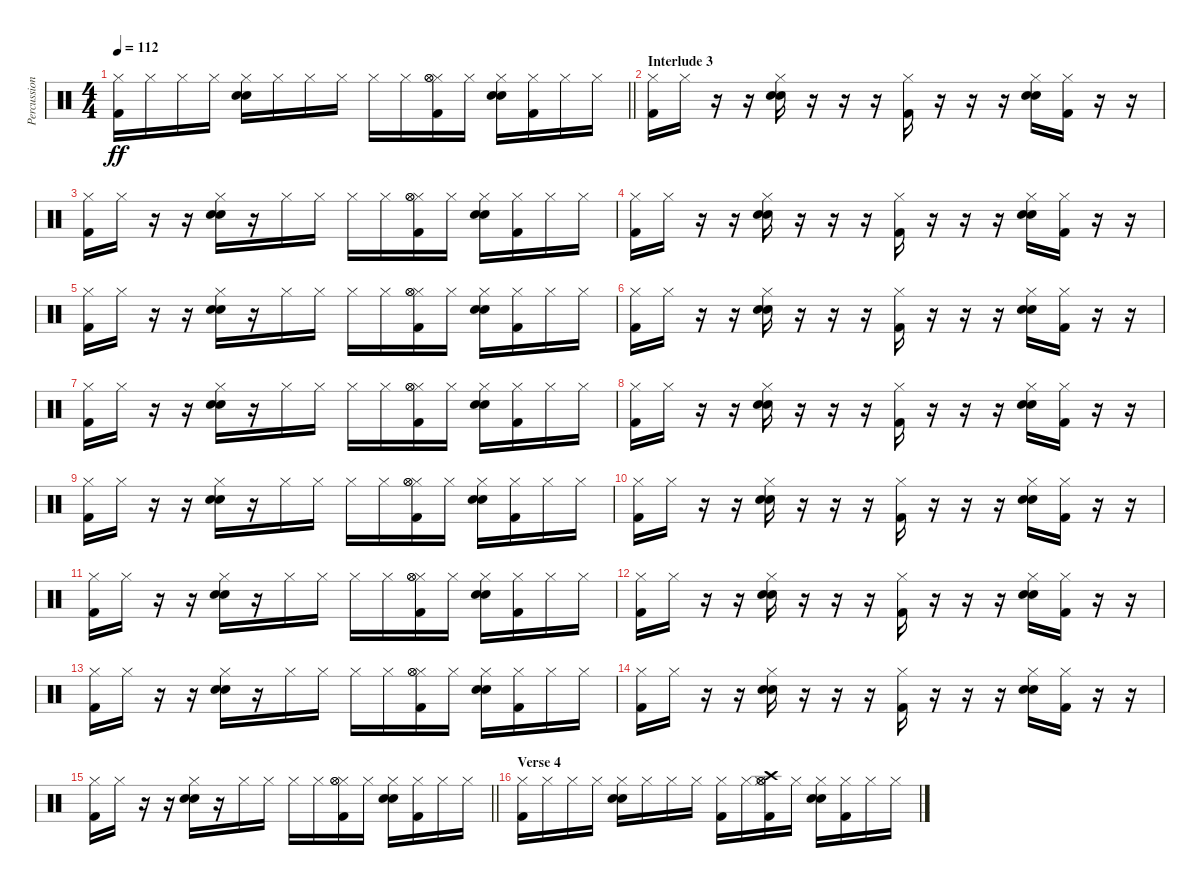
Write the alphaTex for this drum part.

\track ("Percussion" "Percussion") {instrument percussion}
\staff {score}
\articulation defaults
\ts (4 4)
\tempo 112
\clef neutral
\barLineRight lightlight
\ks c
("Kick (hit) 2" "Hi-Hat (closed)").16{dy ff} "Hi-Hat (closed)".16 "Hi-Hat (closed)".16 "Hi-Hat (closed)".16 ("Snare (hit) 2" "Hi-Hat (closed)" "Hand Clap (hit)").16 "Hi-Hat (closed)".16 "Hi-Hat (closed)".16 "Hi-Hat (closed)".16 "Hi-Hat (closed)".16 "Hi-Hat (closed)".16 ("Kick (hit) 2" "Hi-Hat (closed)" "Hi-Hat (open)" "Hi-Hat (open)").16 "Hi-Hat (closed)".16 ("Snare (hit) 2" "Hi-Hat (closed)" "Hand Clap (hit)").16 ("Kick (hit) 2" "Hi-Hat (closed)").16 "Hi-Hat (closed)".16 "Hi-Hat (closed)".16 |
\section ("" "Interlude 3")
("Kick (hit) 2" "Hi-Hat (closed)").16 "Hi-Hat (closed)".16 r.16 r.16 ("Snare (hit) 2" "Hi-Hat (closed)" "Hand Clap (hit)").16 r.16 r.16 r.16 ("Kick (hit) 2" "Hi-Hat (closed)").16 r.16 r.16 r.16 ("Snare (hit) 2" "Hi-Hat (closed)" "Hand Clap (hit)").16 ("Kick (hit) 2" "Hi-Hat (closed)").16 r.16 r.16 |
("Kick (hit) 2" "Hi-Hat (closed)").16 "Hi-Hat (closed)".16 r.16 r.16 ("Snare (hit) 2" "Hi-Hat (closed)" "Hand Clap (hit)").16 r.16 "Hi-Hat (closed)".16 "Hi-Hat (closed)".16 "Hi-Hat (closed)".16 "Hi-Hat (closed)".16 ("Kick (hit) 2" "Hi-Hat (closed)" "Hi-Hat (open)" "Hi-Hat (open)").16 "Hi-Hat (closed)".16 ("Snare (hit) 2" "Hi-Hat (closed)" "Hand Clap (hit)").16 ("Kick (hit) 2" "Hi-Hat (closed)").16 "Hi-Hat (closed)".16 "Hi-Hat (closed)".16 |
("Kick (hit) 2" "Hi-Hat (closed)").16 "Hi-Hat (closed)".16 r.16 r.16 ("Snare (hit) 2" "Hi-Hat (closed)" "Hand Clap (hit)").16 r.16 r.16 r.16 ("Kick (hit) 2" "Hi-Hat (closed)").16 r.16 r.16 r.16 ("Snare (hit) 2" "Hi-Hat (closed)" "Hand Clap (hit)").16 ("Kick (hit) 2" "Hi-Hat (closed)").16 r.16 r.16 |
("Kick (hit) 2" "Hi-Hat (closed)").16 "Hi-Hat (closed)".16 r.16 r.16 ("Snare (hit) 2" "Hi-Hat (closed)" "Hand Clap (hit)").16 r.16 "Hi-Hat (closed)".16 "Hi-Hat (closed)".16 "Hi-Hat (closed)".16 "Hi-Hat (closed)".16 ("Kick (hit) 2" "Hi-Hat (closed)" "Hi-Hat (open)" "Hi-Hat (open)").16 "Hi-Hat (closed)".16 ("Snare (hit) 2" "Hi-Hat (closed)" "Hand Clap (hit)").16 ("Kick (hit) 2" "Hi-Hat (closed)").16 "Hi-Hat (closed)".16 "Hi-Hat (closed)".16 |
("Kick (hit) 2" "Hi-Hat (closed)").16 "Hi-Hat (closed)".16 r.16 r.16 ("Snare (hit) 2" "Hi-Hat (closed)" "Hand Clap (hit)").16 r.16 r.16 r.16 ("Kick (hit) 2" "Hi-Hat (closed)").16 r.16 r.16 r.16 ("Snare (hit) 2" "Hi-Hat (closed)" "Hand Clap (hit)").16 ("Kick (hit) 2" "Hi-Hat (closed)").16 r.16 r.16 |
("Kick (hit) 2" "Hi-Hat (closed)").16 "Hi-Hat (closed)".16 r.16 r.16 ("Snare (hit) 2" "Hi-Hat (closed)" "Hand Clap (hit)").16 r.16 "Hi-Hat (closed)".16 "Hi-Hat (closed)".16 "Hi-Hat (closed)".16 "Hi-Hat (closed)".16 ("Kick (hit) 2" "Hi-Hat (closed)" "Hi-Hat (open)" "Hi-Hat (open)").16 "Hi-Hat (closed)".16 ("Snare (hit) 2" "Hi-Hat (closed)" "Hand Clap (hit)").16 ("Kick (hit) 2" "Hi-Hat (closed)").16 "Hi-Hat (closed)".16 "Hi-Hat (closed)".16 |
("Kick (hit) 2" "Hi-Hat (closed)").16 "Hi-Hat (closed)".16 r.16 r.16 ("Snare (hit) 2" "Hi-Hat (closed)" "Hand Clap (hit)").16 r.16 r.16 r.16 ("Kick (hit) 2" "Hi-Hat (closed)").16 r.16 r.16 r.16 ("Snare (hit) 2" "Hi-Hat (closed)" "Hand Clap (hit)").16 ("Kick (hit) 2" "Hi-Hat (closed)").16 r.16 r.16 |
("Kick (hit) 2" "Hi-Hat (closed)").16 "Hi-Hat (closed)".16 r.16 r.16 ("Snare (hit) 2" "Hi-Hat (closed)" "Hand Clap (hit)").16 r.16 "Hi-Hat (closed)".16 "Hi-Hat (closed)".16 "Hi-Hat (closed)".16 "Hi-Hat (closed)".16 ("Kick (hit) 2" "Hi-Hat (closed)" "Hi-Hat (open)" "Hi-Hat (open)").16 "Hi-Hat (closed)".16 ("Snare (hit) 2" "Hi-Hat (closed)" "Hand Clap (hit)").16 ("Kick (hit) 2" "Hi-Hat (closed)").16 "Hi-Hat (closed)".16 "Hi-Hat (closed)".16 |
("Kick (hit) 2" "Hi-Hat (closed)").16 "Hi-Hat (closed)".16 r.16 r.16 ("Snare (hit) 2" "Hi-Hat (closed)" "Hand Clap (hit)").16 r.16 r.16 r.16 ("Kick (hit) 2" "Hi-Hat (closed)").16 r.16 r.16 r.16 ("Snare (hit) 2" "Hi-Hat (closed)" "Hand Clap (hit)").16 ("Kick (hit) 2" "Hi-Hat (closed)").16 r.16 r.16 |
("Kick (hit) 2" "Hi-Hat (closed)").16 "Hi-Hat (closed)".16 r.16 r.16 ("Snare (hit) 2" "Hi-Hat (closed)" "Hand Clap (hit)").16 r.16 "Hi-Hat (closed)".16 "Hi-Hat (closed)".16 "Hi-Hat (closed)".16 "Hi-Hat (closed)".16 ("Kick (hit) 2" "Hi-Hat (closed)" "Hi-Hat (open)" "Hi-Hat (open)").16 "Hi-Hat (closed)".16 ("Snare (hit) 2" "Hi-Hat (closed)" "Hand Clap (hit)").16 ("Kick (hit) 2" "Hi-Hat (closed)").16 "Hi-Hat (closed)".16 "Hi-Hat (closed)".16 |
("Kick (hit) 2" "Hi-Hat (closed)").16 "Hi-Hat (closed)".16 r.16 r.16 ("Snare (hit) 2" "Hi-Hat (closed)" "Hand Clap (hit)").16 r.16 r.16 r.16 ("Kick (hit) 2" "Hi-Hat (closed)").16 r.16 r.16 r.16 ("Snare (hit) 2" "Hi-Hat (closed)" "Hand Clap (hit)").16 ("Kick (hit) 2" "Hi-Hat (closed)").16 r.16 r.16 |
("Kick (hit) 2" "Hi-Hat (closed)").16 "Hi-Hat (closed)".16 r.16 r.16 ("Snare (hit) 2" "Hi-Hat (closed)" "Hand Clap (hit)").16 r.16 "Hi-Hat (closed)".16 "Hi-Hat (closed)".16 "Hi-Hat (closed)".16 "Hi-Hat (closed)".16 ("Kick (hit) 2" "Hi-Hat (closed)" "Hi-Hat (open)" "Hi-Hat (open)").16 "Hi-Hat (closed)".16 ("Snare (hit) 2" "Hi-Hat (closed)" "Hand Clap (hit)").16 ("Kick (hit) 2" "Hi-Hat (closed)").16 "Hi-Hat (closed)".16 "Hi-Hat (closed)".16 |
("Kick (hit) 2" "Hi-Hat (closed)").16 "Hi-Hat (closed)".16 r.16 r.16 ("Snare (hit) 2" "Hi-Hat (closed)" "Hand Clap (hit)").16 r.16 r.16 r.16 ("Kick (hit) 2" "Hi-Hat (closed)").16 r.16 r.16 r.16 ("Snare (hit) 2" "Hi-Hat (closed)" "Hand Clap (hit)").16 ("Kick (hit) 2" "Hi-Hat (closed)").16 r.16 r.16 |
\barLineRight lightlight
("Kick (hit) 2" "Hi-Hat (closed)").16 "Hi-Hat (closed)".16 r.16 r.16 ("Snare (hit) 2" "Hi-Hat (closed)" "Hand Clap (hit)").16 r.16 "Hi-Hat (closed)".16 "Hi-Hat (closed)".16 "Hi-Hat (closed)".16 "Hi-Hat (closed)".16 ("Kick (hit) 2" "Hi-Hat (closed)" "Hi-Hat (open)" "Hi-Hat (open)").16 "Hi-Hat (closed)".16 ("Snare (hit) 2" "Hi-Hat (closed)" "Hand Clap (hit)").16 ("Kick (hit) 2" "Hi-Hat (closed)").16 "Hi-Hat (closed)".16 "Hi-Hat (closed)".16 |
\section ("" "Verse 4")
("Kick (hit) 2" "Hi-Hat (closed)").16 "Hi-Hat (closed)".16 "Hi-Hat (closed)".16 "Hi-Hat (closed)".16 ("Snare (hit) 2" "Hi-Hat (closed)" "Hand Clap (hit)").16 "Hi-Hat (closed)".16 "Hi-Hat (closed)".16 "Hi-Hat (closed)".16 ("Kick (hit) 2" "Hi-Hat (closed)").16 "Hi-Hat (closed)".16 ("Kick (hit) 2" "Crash high (hit)" "Hi-Hat (closed)" "Hi-Hat (open)" "Hi-Hat (open)").16 "Hi-Hat (closed)".16 ("Snare (hit) 2" "Hi-Hat (closed)" "Hand Clap (hit)").16 ("Kick (hit) 2" "Hi-Hat (closed)").16 "Hi-Hat (closed)".16 "Hi-Hat (closed)".16
